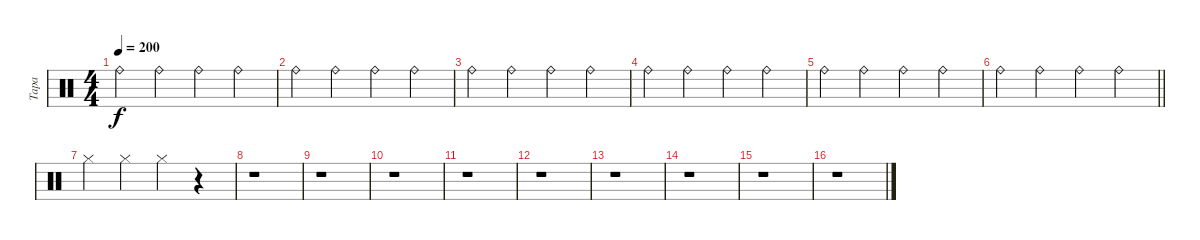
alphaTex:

\track ("Tapa" "Tapa") {instrument percussion}
\staff {score}
\articulation defaults
\ts (4 4)
\tempo 200
\clef neutral
\ks c "Ride (bell)".4{dy f} "Ride (bell)".4 "Ride (bell)".4 "Ride (bell)".4
|
"Ride (bell)".4 "Ride (bell)".4 "Ride (bell)".4 "Ride (bell)".4 |
"Ride (bell)".4 "Ride (bell)".4 "Ride (bell)".4 "Ride (bell)".4 |
"Ride (bell)".4 "Ride (bell)".4 "Ride (bell)".4 "Ride (bell)".4 |
"Ride (bell)".4 "Ride (bell)".4 "Ride (bell)".4 "Ride (bell)".4 |
\barLineRight lightlight "Ride (bell)".4 "Ride (bell)".4 "Ride (bell)".4 "Ride (bell)".4
|
"Hi-Hat (closed)".4 "Hi-Hat (closed)".4 "Hi-Hat (closed)".4 r.4 |
r.1 |
r.1 |
r.1 |
r.1 |
r.1 |
r.1 |
r.1 |
r.1 |
r.1
